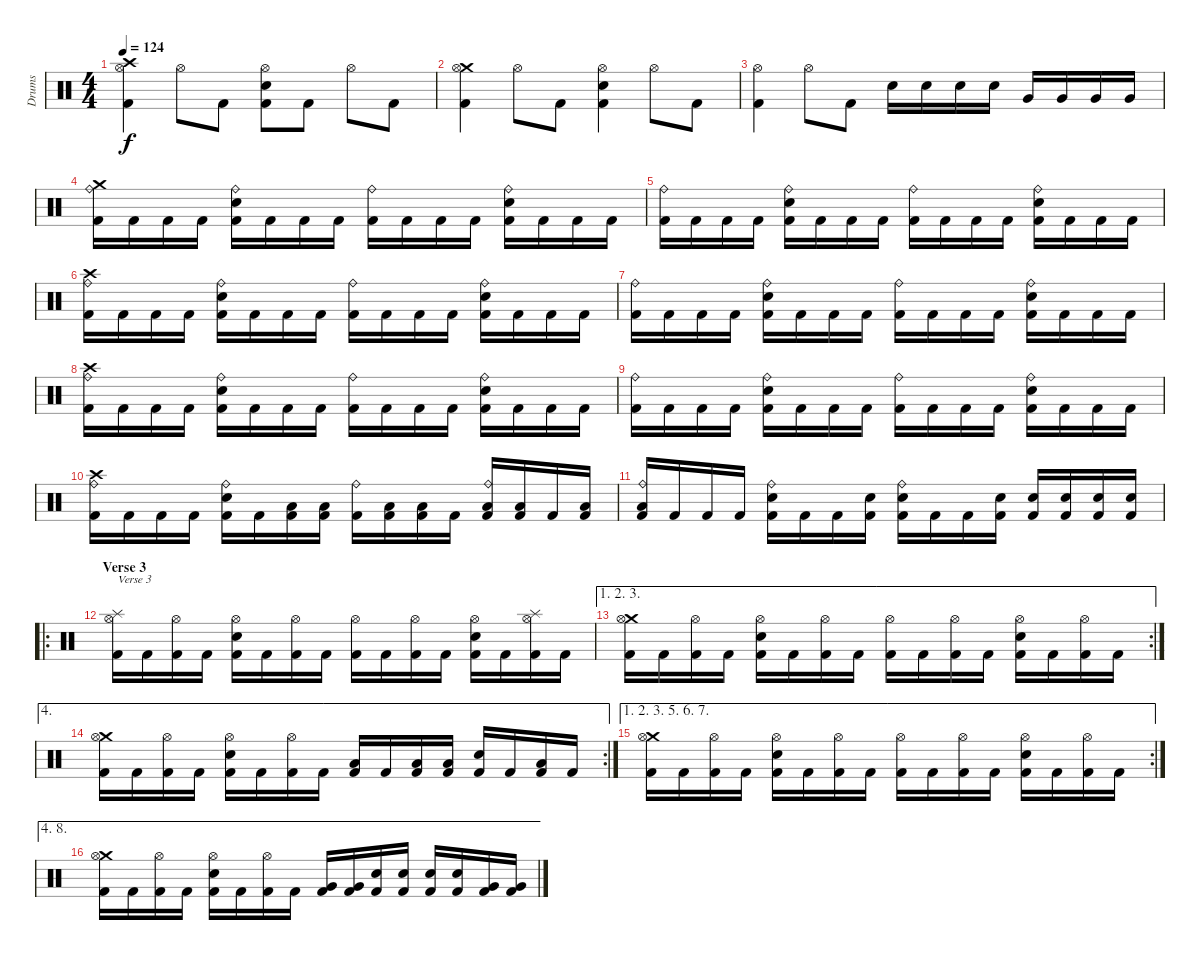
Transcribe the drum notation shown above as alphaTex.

\track ("Drums" "Drums") {instrument percussion}
\staff {score}
\articulation defaults
\ts (4 4)
\tempo 124
\clef neutral
\ks c
("Crash high (hit)" "Hi-Hat (open)" "Kick (hit) 2").4{dy f} "Hi-Hat (open)".8 "Kick (hit) 2".8 ("Hi-Hat (open)" "Electric Snare (hit)" "Kick (hit) 2").8 "Kick (hit) 2".8 "Hi-Hat (open)".8 "Kick (hit) 2".8 |
("Crash medium (hit)" "Hi-Hat (open)" "Kick (hit) 2").4 "Hi-Hat (open)".8 "Kick (hit) 2".8 ("Hi-Hat (open)" "Electric Snare (hit)" "Kick (hit) 2").4 "Hi-Hat (open)".8 "Kick (hit) 2".8 |
("Hi-Hat (open)" "Kick (hit) 2").4 "Hi-Hat (open)".8 "Kick (hit) 2".8 "Electric Snare (hit)".16 "Electric Snare (hit)".16 "Electric Snare (hit)".16 "Electric Snare (hit)".16 "Very Low Tom (hit)".16 "Very Low Tom (hit)".16 "Very Low Tom (hit)".16 "Very Low Tom (hit)".16 |
("Crash medium (hit)" "Ride (bell)" "Kick (hit) 2").16 "Kick (hit) 2".16 "Kick (hit) 2".16 "Kick (hit) 2".16 ("Ride (bell)" "Electric Snare (hit)" "Kick (hit) 2").16 "Kick (hit) 2".16 "Kick (hit) 2".16 "Kick (hit) 2".16 ("Ride (bell)" "Kick (hit) 2").16 "Kick (hit) 2".16 "Kick (hit) 2".16 "Kick (hit) 2".16 ("Ride (bell)" "Electric Snare (hit)" "Kick (hit) 2").16 "Kick (hit) 2".16 "Kick (hit) 2".16 "Kick (hit) 2".16 |
("Ride (bell)" "Kick (hit) 2").16 "Kick (hit) 2".16 "Kick (hit) 2".16 "Kick (hit) 2".16 ("Ride (bell)" "Electric Snare (hit)" "Kick (hit) 2").16 "Kick (hit) 2".16 "Kick (hit) 2".16 "Kick (hit) 2".16 ("Ride (bell)" "Kick (hit) 2").16 "Kick (hit) 2".16 "Kick (hit) 2".16 "Kick (hit) 2".16 ("Ride (bell)" "Electric Snare (hit)" "Kick (hit) 2").16 "Kick (hit) 2".16 "Kick (hit) 2".16 "Kick (hit) 2".16 |
("Crash high (hit)" "Ride (bell)" "Kick (hit) 2").16 "Kick (hit) 2".16 "Kick (hit) 2".16 "Kick (hit) 2".16 ("Ride (bell)" "Electric Snare (hit)" "Kick (hit) 2").16 "Kick (hit) 2".16 "Kick (hit) 2".16 "Kick (hit) 2".16 ("Ride (bell)" "Kick (hit) 2").16 "Kick (hit) 2".16 "Kick (hit) 2".16 "Kick (hit) 2".16 ("Ride (bell)" "Electric Snare (hit)" "Kick (hit) 2").16 "Kick (hit) 2".16 "Kick (hit) 2".16 "Kick (hit) 2".16 |
("Ride (bell)" "Kick (hit) 2").16 "Kick (hit) 2".16 "Kick (hit) 2".16 "Kick (hit) 2".16 ("Ride (bell)" "Electric Snare (hit)" "Kick (hit) 2").16 "Kick (hit) 2".16 "Kick (hit) 2".16 "Kick (hit) 2".16 ("Ride (bell)" "Kick (hit) 2").16 "Kick (hit) 2".16 "Kick (hit) 2".16 "Kick (hit) 2".16 ("Ride (bell)" "Electric Snare (hit)" "Kick (hit) 2").16 "Kick (hit) 2".16 "Kick (hit) 2".16 "Kick (hit) 2".16 |
("Crash high (hit)" "Ride (bell)" "Kick (hit) 2").16 "Kick (hit) 2".16 "Kick (hit) 2".16 "Kick (hit) 2".16 ("Ride (bell)" "Electric Snare (hit)" "Kick (hit) 2").16 "Kick (hit) 2".16 "Kick (hit) 2".16 "Kick (hit) 2".16 ("Ride (bell)" "Kick (hit) 2").16 "Kick (hit) 2".16 "Kick (hit) 2".16 "Kick (hit) 2".16 ("Ride (bell)" "Electric Snare (hit)" "Kick (hit) 2").16 "Kick (hit) 2".16 "Kick (hit) 2".16 "Kick (hit) 2".16 |
("Ride (bell)" "Kick (hit) 2").16 "Kick (hit) 2".16 "Kick (hit) 2".16 "Kick (hit) 2".16 ("Ride (bell)" "Electric Snare (hit)" "Kick (hit) 2").16 "Kick (hit) 2".16 "Kick (hit) 2".16 "Kick (hit) 2".16 ("Ride (bell)" "Kick (hit) 2").16 "Kick (hit) 2".16 "Kick (hit) 2".16 "Kick (hit) 2".16 ("Ride (bell)" "Electric Snare (hit)" "Kick (hit) 2").16 "Kick (hit) 2".16 "Kick (hit) 2".16 "Kick (hit) 2".16 |
("Crash high (hit)" "Ride (bell)" "Kick (hit) 2").16 "Kick (hit) 2".16 "Kick (hit) 2".16 "Kick (hit) 2".16 ("Ride (bell)" "Electric Snare (hit)" "Kick (hit) 2").16 "Kick (hit) 2".16 ("Low Floor Tom (hit)" "Kick (hit) 2").16 ("Low Floor Tom (hit)" "Kick (hit) 2").16 ("Ride (bell)" "Kick (hit) 2").16 ("Low Floor Tom (hit)" "Kick (hit) 2").16 ("Low Floor Tom (hit)" "Kick (hit) 2").16 "Kick (hit) 2".16 ("Ride (bell)" "Low Floor Tom (hit)" "Kick (hit) 2").16 ("Low Floor Tom (hit)" "Kick (hit) 2").16 "Kick (hit) 2".16 ("Low Floor Tom (hit)" "Kick (hit) 2").16 |
("Ride (bell)" "Low Floor Tom (hit)" "Kick (hit) 2").16 "Kick (hit) 2".16 "Kick (hit) 2".16 "Kick (hit) 2".16 ("Ride (bell)" "Electric Snare (hit)" "Kick (hit) 2").16 "Kick (hit) 2".16 "Kick (hit) 2".16 ("Electric Snare (hit)" "Kick (hit) 2").16 ("Ride (bell)" "Electric Snare (hit)" "Kick (hit) 2").16 "Kick (hit) 2".16 "Kick (hit) 2".16 ("Electric Snare (hit)" "Kick (hit) 2").16 ("Electric Snare (hit)" "Kick (hit) 2").16 ("Electric Snare (hit)" "Kick (hit) 2").16 ("Electric Snare (hit)" "Kick (hit) 2").16 ("Electric Snare (hit)" "Kick (hit) 2").16 |
\ro
\section ("" "Verse 3")
("Splash (hit)" "Hi-Hat (open)" "Kick (hit) 2").16{txt "Verse 3"} "Kick (hit) 2".16 ("Hi-Hat (open)" "Kick (hit) 2").16 "Kick (hit) 2".16 ("Hi-Hat (open)" "Electric Snare (hit)" "Kick (hit) 2").16 "Kick (hit) 2".16 ("Hi-Hat (open)" "Kick (hit) 2").16 "Kick (hit) 2".16 ("Hi-Hat (open)" "Kick (hit) 2").16 "Kick (hit) 2".16 ("Hi-Hat (open)" "Kick (hit) 2").16 "Kick (hit) 2".16 ("Hi-Hat (open)" "Electric Snare (hit)" "Kick (hit) 2").16 "Kick (hit) 2".16 ("Splash (hit)" "Hi-Hat (open)" "Kick (hit) 2").16 "Kick (hit) 2".16 |
\ae (1 2 3)
\rc 2
("Crash medium (hit)" "Hi-Hat (open)" "Kick (hit) 2").16 "Kick (hit) 2".16 ("Hi-Hat (open)" "Kick (hit) 2").16 "Kick (hit) 2".16 ("Hi-Hat (open)" "Electric Snare (hit)" "Kick (hit) 2").16 "Kick (hit) 2".16 ("Hi-Hat (open)" "Kick (hit) 2").16 "Kick (hit) 2".16 ("Hi-Hat (open)" "Kick (hit) 2").16 "Kick (hit) 2".16 ("Hi-Hat (open)" "Kick (hit) 2").16 "Kick (hit) 2".16 ("Hi-Hat (open)" "Electric Snare (hit)" "Kick (hit) 2").16 "Kick (hit) 2".16 ("Hi-Hat (open)" "Kick (hit) 2").16 "Kick (hit) 2".16 |
\ae 4
\rc 2
("Crash medium (hit)" "Hi-Hat (open)" "Kick (hit) 2").16 "Kick (hit) 2".16 ("Hi-Hat (open)" "Kick (hit) 2").16 "Kick (hit) 2".16 ("Hi-Hat (open)" "Electric Snare (hit)" "Kick (hit) 2").16 "Kick (hit) 2".16 ("Hi-Hat (open)" "Kick (hit) 2").16 "Kick (hit) 2".16 ("Low Floor Tom (hit)" "Kick (hit) 2").16 "Kick (hit) 2".16 ("Low Floor Tom (hit)" "Kick (hit) 2").16 ("Low Floor Tom (hit)" "Kick (hit) 2").16 ("Electric Snare (hit)" "Kick (hit) 2").16 "Kick (hit) 2".16 ("Low Floor Tom (hit)" "Kick (hit) 2").16 "Kick (hit) 2".16 |
\ae (1 2 3 5 6 7)
\rc 2
("Crash medium (hit)" "Hi-Hat (open)" "Kick (hit) 2").16 "Kick (hit) 2".16 ("Hi-Hat (open)" "Kick (hit) 2").16 "Kick (hit) 2".16 ("Hi-Hat (open)" "Electric Snare (hit)" "Kick (hit) 2").16 "Kick (hit) 2".16 ("Hi-Hat (open)" "Kick (hit) 2").16 "Kick (hit) 2".16 ("Hi-Hat (open)" "Kick (hit) 2").16 "Kick (hit) 2".16 ("Hi-Hat (open)" "Kick (hit) 2").16 "Kick (hit) 2".16 ("Hi-Hat (open)" "Electric Snare (hit)" "Kick (hit) 2").16 "Kick (hit) 2".16 ("Hi-Hat (open)" "Kick (hit) 2").16 "Kick (hit) 2".16 |
\ae (4 8)
("Crash medium (hit)" "Hi-Hat (open)" "Kick (hit) 2").16 "Kick (hit) 2".16 ("Hi-Hat (open)" "Kick (hit) 2").16 "Kick (hit) 2".16 ("Hi-Hat (open)" "Electric Snare (hit)" "Kick (hit) 2").16 "Kick (hit) 2".16 ("Hi-Hat (open)" "Kick (hit) 2").16 "Kick (hit) 2".16 ("Very Low Tom (hit)" "Kick (hit) 2").16 ("Very Low Tom (hit)" "Kick (hit) 2").16 ("Electric Snare (hit)" "Kick (hit) 2").16 ("Electric Snare (hit)" "Kick (hit) 2").16 ("Electric Snare (hit)" "Kick (hit) 2").16 ("Electric Snare (hit)" "Kick (hit) 2").16 ("Very Low Tom (hit)" "Kick (hit) 2").16 ("Very Low Tom (hit)" "Kick (hit) 2").16
